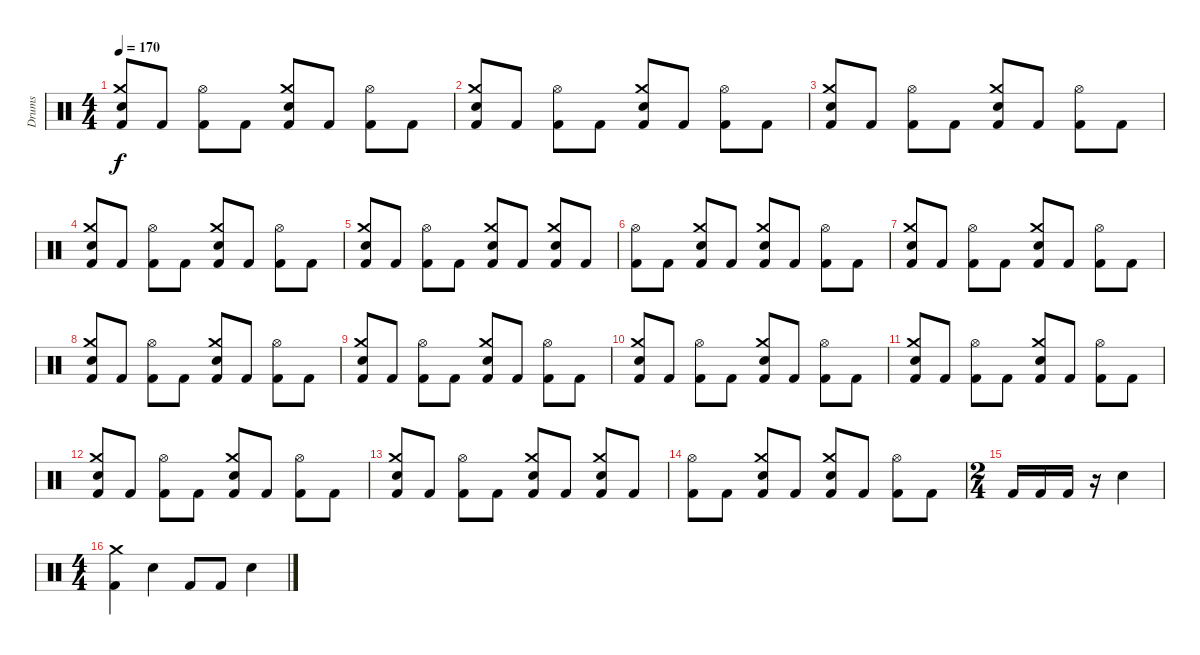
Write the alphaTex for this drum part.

\track ("Drums" "Drums") {instrument percussion}
\staff {score}
\articulation defaults
\ts (4 4)
\tempo 170
\clef neutral
\ks c
("Snare (hit) 2" "Crash medium (hit)" "Kick (hit) 2").8{dy f} "Kick (hit) 2".8 ("Hi-Hat (open)" "Kick (hit) 2").8 "Kick (hit) 2".8 ("Snare (hit) 2" "Crash medium (hit)" "Kick (hit) 2").8 "Kick (hit) 2".8 ("Hi-Hat (open)" "Kick (hit) 2").8 "Kick (hit) 2".8 |
("Snare (hit) 2" "Crash medium (hit)" "Kick (hit) 2").8 "Kick (hit) 2".8 ("Hi-Hat (open)" "Kick (hit) 2").8 "Kick (hit) 2".8 ("Snare (hit) 2" "Crash medium (hit)" "Kick (hit) 2").8 "Kick (hit) 2".8 ("Hi-Hat (open)" "Kick (hit) 2").8 "Kick (hit) 2".8 |
("Snare (hit) 2" "Crash medium (hit)" "Kick (hit) 2").8 "Kick (hit) 2".8 ("Hi-Hat (open)" "Kick (hit) 2").8 "Kick (hit) 2".8 ("Snare (hit) 2" "Crash medium (hit)" "Kick (hit) 2").8 "Kick (hit) 2".8 ("Hi-Hat (open)" "Kick (hit) 2").8 "Kick (hit) 2".8 |
("Snare (hit) 2" "Crash medium (hit)" "Kick (hit) 2").8 "Kick (hit) 2".8 ("Hi-Hat (open)" "Kick (hit) 2").8 "Kick (hit) 2".8 ("Snare (hit) 2" "Crash medium (hit)" "Kick (hit) 2").8 "Kick (hit) 2".8 ("Hi-Hat (open)" "Kick (hit) 2").8 "Kick (hit) 2".8 |
("Snare (hit) 2" "Crash medium (hit)" "Kick (hit) 2").8 "Kick (hit) 2".8 ("Hi-Hat (open)" "Kick (hit) 2").8 "Kick (hit) 2".8 ("Snare (hit) 2" "Crash medium (hit)" "Kick (hit) 2").8 "Kick (hit) 2".8 ("Snare (hit) 2" "Crash medium (hit)" "Kick (hit) 2").8 "Kick (hit) 2".8 |
("Hi-Hat (open)" "Kick (hit) 2").8 "Kick (hit) 2".8 ("Snare (hit) 2" "Crash medium (hit)" "Kick (hit) 2").8 "Kick (hit) 2".8 ("Snare (hit) 2" "Crash medium (hit)" "Kick (hit) 2").8 "Kick (hit) 2".8 ("Hi-Hat (open)" "Kick (hit) 2").8 "Kick (hit) 2".8 |
("Snare (hit) 2" "Crash medium (hit)" "Kick (hit) 2").8 "Kick (hit) 2".8 ("Hi-Hat (open)" "Kick (hit) 2").8 "Kick (hit) 2".8 ("Snare (hit) 2" "Crash medium (hit)" "Kick (hit) 2").8 "Kick (hit) 2".8 ("Hi-Hat (open)" "Kick (hit) 2").8 "Kick (hit) 2".8 |
("Snare (hit) 2" "Crash medium (hit)" "Kick (hit) 2").8 "Kick (hit) 2".8 ("Hi-Hat (open)" "Kick (hit) 2").8 "Kick (hit) 2".8 ("Snare (hit) 2" "Crash medium (hit)" "Kick (hit) 2").8 "Kick (hit) 2".8 ("Hi-Hat (open)" "Kick (hit) 2").8 "Kick (hit) 2".8 |
("Snare (hit) 2" "Crash medium (hit)" "Kick (hit) 2").8 "Kick (hit) 2".8 ("Hi-Hat (open)" "Kick (hit) 2").8 "Kick (hit) 2".8 ("Snare (hit) 2" "Crash medium (hit)" "Kick (hit) 2").8 "Kick (hit) 2".8 ("Hi-Hat (open)" "Kick (hit) 2").8 "Kick (hit) 2".8 |
("Snare (hit) 2" "Crash medium (hit)" "Kick (hit) 2").8 "Kick (hit) 2".8 ("Hi-Hat (open)" "Kick (hit) 2").8 "Kick (hit) 2".8 ("Snare (hit) 2" "Crash medium (hit)" "Kick (hit) 2").8 "Kick (hit) 2".8 ("Hi-Hat (open)" "Kick (hit) 2").8 "Kick (hit) 2".8 |
("Snare (hit) 2" "Crash medium (hit)" "Kick (hit) 2").8 "Kick (hit) 2".8 ("Hi-Hat (open)" "Kick (hit) 2").8 "Kick (hit) 2".8 ("Snare (hit) 2" "Crash medium (hit)" "Kick (hit) 2").8 "Kick (hit) 2".8 ("Hi-Hat (open)" "Kick (hit) 2").8 "Kick (hit) 2".8 |
("Snare (hit) 2" "Crash medium (hit)" "Kick (hit) 2").8 "Kick (hit) 2".8 ("Hi-Hat (open)" "Kick (hit) 2").8 "Kick (hit) 2".8 ("Snare (hit) 2" "Crash medium (hit)" "Kick (hit) 2").8 "Kick (hit) 2".8 ("Hi-Hat (open)" "Kick (hit) 2").8 "Kick (hit) 2".8 |
("Snare (hit) 2" "Crash medium (hit)" "Kick (hit) 2").8 "Kick (hit) 2".8 ("Hi-Hat (open)" "Kick (hit) 2").8 "Kick (hit) 2".8 ("Snare (hit) 2" "Crash medium (hit)" "Kick (hit) 2").8 "Kick (hit) 2".8 ("Snare (hit) 2" "Crash medium (hit)" "Kick (hit) 2").8 "Kick (hit) 2".8 |
("Hi-Hat (open)" "Kick (hit) 2").8 "Kick (hit) 2".8 ("Snare (hit) 2" "Crash medium (hit)" "Kick (hit) 2").8 "Kick (hit) 2".8 ("Snare (hit) 2" "Crash medium (hit)" "Kick (hit) 2").8 "Kick (hit) 2".8 ("Hi-Hat (open)" "Kick (hit) 2").8 "Kick (hit) 2".8 |
\ts (2 4)
"Kick (hit) 2".16 "Kick (hit) 2".16 "Kick (hit) 2".16 r.16 "Snare (hit) 2".4 |
\ts (4 4)
("Crash medium (hit)" "Kick (hit) 2").4 "Snare (hit) 2".4 "Kick (hit) 2".8 "Kick (hit) 2".8 "Snare (hit) 2".4
